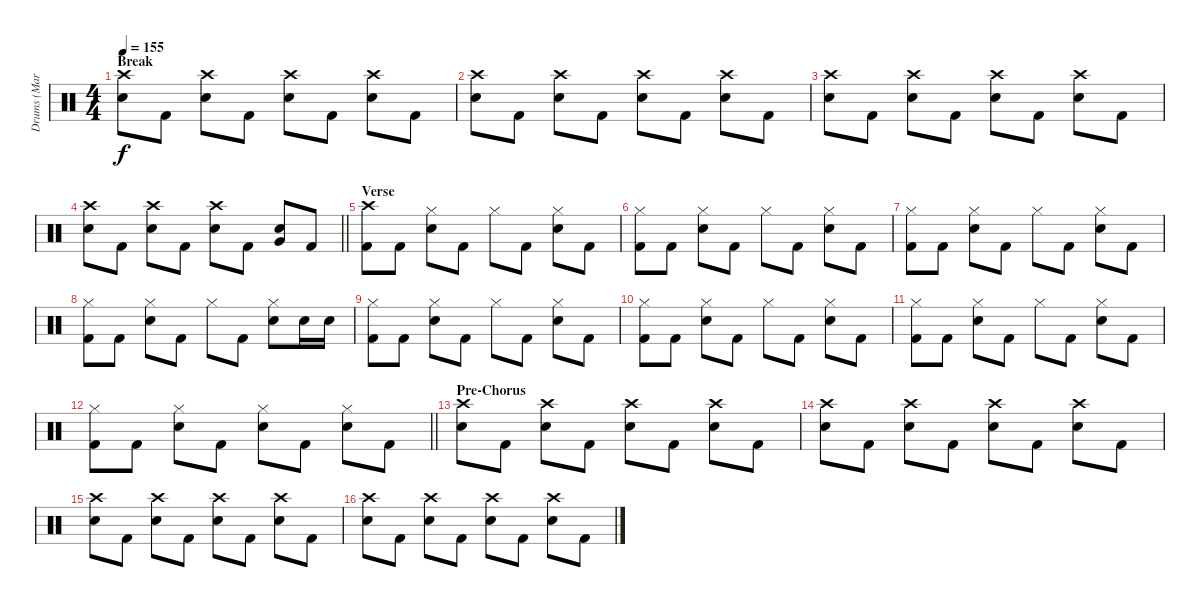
\track ("Drums (Mark)" "Drums (Mar") {instrument percussion}
\staff {score}
\articulation defaults
\ts (4 4)
\section ("" "Break")
\tempo 155
\clef neutral
\ks c
("Crash high (hit)" "Snare (hit) 2").8{dy f} "Kick (hit) 2".8 ("Crash high (hit)" "Snare (hit) 2").8 "Kick (hit) 2".8 ("Crash high (hit)" "Snare (hit) 2").8 "Kick (hit) 2".8 ("Crash high (hit)" "Snare (hit) 2").8 "Kick (hit) 2".8 |
("Crash high (hit)" "Snare (hit) 2").8 "Kick (hit) 2".8 ("Crash high (hit)" "Snare (hit) 2").8 "Kick (hit) 2".8 ("Crash high (hit)" "Snare (hit) 2").8 "Kick (hit) 2".8 ("Crash high (hit)" "Snare (hit) 2").8 "Kick (hit) 2".8 |
("Crash high (hit)" "Snare (hit) 2").8 "Kick (hit) 2".8 ("Crash high (hit)" "Snare (hit) 2").8 "Kick (hit) 2".8 ("Crash high (hit)" "Snare (hit) 2").8 "Kick (hit) 2".8 ("Crash high (hit)" "Snare (hit) 2").8 "Kick (hit) 2".8 |
\barLineRight lightlight
("Crash high (hit)" "Snare (hit) 2").8 "Kick (hit) 2".8 ("Crash high (hit)" "Snare (hit) 2").8 "Kick (hit) 2".8 ("Crash high (hit)" "Snare (hit) 2").8 "Kick (hit) 2".8 ("Snare (hit) 2" "Very Low Tom (hit)").8 "Kick (hit) 2".8 |
\section ("" "Verse")
("Crash high (hit)" "Kick (hit) 2").8 "Kick (hit) 2".8 ("Hi-Hat (closed)" "Snare (hit) 2").8 "Kick (hit) 2".8 "Hi-Hat (closed)".8 "Kick (hit) 2".8 ("Hi-Hat (closed)" "Snare (hit) 2").8 "Kick (hit) 2".8 |
("Hi-Hat (closed)" "Kick (hit) 2").8 "Kick (hit) 2".8 ("Hi-Hat (closed)" "Snare (hit) 2").8 "Kick (hit) 2".8 "Hi-Hat (closed)".8 "Kick (hit) 2".8 ("Hi-Hat (closed)" "Snare (hit) 2").8 "Kick (hit) 2".8 |
("Hi-Hat (closed)" "Kick (hit) 2").8 "Kick (hit) 2".8 ("Hi-Hat (closed)" "Snare (hit) 2").8 "Kick (hit) 2".8 "Hi-Hat (closed)".8 "Kick (hit) 2".8 ("Hi-Hat (closed)" "Snare (hit) 2").8 "Kick (hit) 2".8 |
("Hi-Hat (closed)" "Kick (hit) 2").8 "Kick (hit) 2".8 ("Hi-Hat (closed)" "Snare (hit) 2").8 "Kick (hit) 2".8 "Hi-Hat (closed)".8 "Kick (hit) 2".8 ("Hi-Hat (closed)" "Snare (hit) 2").8 "Snare (hit) 2".16 "Snare (hit) 2".16 |
("Hi-Hat (closed)" "Kick (hit) 2").8 "Kick (hit) 2".8 ("Hi-Hat (closed)" "Snare (hit) 2").8 "Kick (hit) 2".8 "Hi-Hat (closed)".8 "Kick (hit) 2".8 ("Hi-Hat (closed)" "Snare (hit) 2").8 "Kick (hit) 2".8 |
("Hi-Hat (closed)" "Kick (hit) 2").8 "Kick (hit) 2".8 ("Hi-Hat (closed)" "Snare (hit) 2").8 "Kick (hit) 2".8 "Hi-Hat (closed)".8 "Kick (hit) 2".8 ("Hi-Hat (closed)" "Snare (hit) 2").8 "Kick (hit) 2".8 |
("Hi-Hat (closed)" "Kick (hit) 2").8 "Kick (hit) 2".8 ("Hi-Hat (closed)" "Snare (hit) 2").8 "Kick (hit) 2".8 "Hi-Hat (closed)".8 "Kick (hit) 2".8 ("Hi-Hat (closed)" "Snare (hit) 2").8 "Kick (hit) 2".8 |
\barLineRight lightlight
("Hi-Hat (closed)" "Kick (hit) 2").8 "Kick (hit) 2".8 ("Hi-Hat (closed)" "Snare (hit) 2").8 "Kick (hit) 2".8 ("Hi-Hat (closed)" "Snare (hit) 2").8 "Kick (hit) 2".8 ("Hi-Hat (closed)" "Snare (hit) 2").8 "Kick (hit) 2".8 |
\section ("" "Pre-Chorus")
("Crash high (hit)" "Snare (hit) 2").8 "Kick (hit) 2".8 ("Crash high (hit)" "Snare (hit) 2").8 "Kick (hit) 2".8 ("Crash high (hit)" "Snare (hit) 2").8 "Kick (hit) 2".8 ("Crash high (hit)" "Snare (hit) 2").8 "Kick (hit) 2".8 |
("Crash high (hit)" "Snare (hit) 2").8 "Kick (hit) 2".8 ("Crash high (hit)" "Snare (hit) 2").8 "Kick (hit) 2".8 ("Crash high (hit)" "Snare (hit) 2").8 "Kick (hit) 2".8 ("Crash high (hit)" "Snare (hit) 2").8 "Kick (hit) 2".8 |
("Crash high (hit)" "Snare (hit) 2").8 "Kick (hit) 2".8 ("Crash high (hit)" "Snare (hit) 2").8 "Kick (hit) 2".8 ("Crash high (hit)" "Snare (hit) 2").8 "Kick (hit) 2".8 ("Crash high (hit)" "Snare (hit) 2").8 "Kick (hit) 2".8 |
("Crash high (hit)" "Snare (hit) 2").8 "Kick (hit) 2".8 ("Crash high (hit)" "Snare (hit) 2").8 "Kick (hit) 2".8 ("Crash high (hit)" "Snare (hit) 2").8 "Kick (hit) 2".8 ("Crash high (hit)" "Snare (hit) 2").8 "Kick (hit) 2".8
